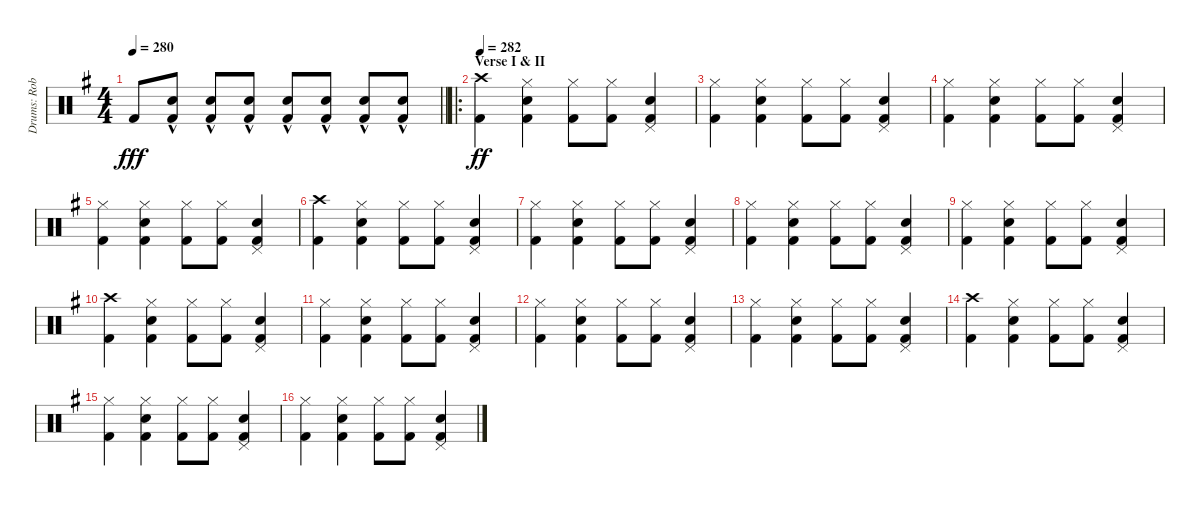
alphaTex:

\track ("Drums: Rob" "Drums: Rob") {instrument percussion}
\staff {score}
\articulation defaults
\ts (4 4)
\tempo 280
\clef neutral
\barLineRight lightlight
\ks g "Kick (hit) 2".8{dy fff}
("Snare (hit) 2" "Kick (hit) 2"{hac}).8 ("Snare (hit) 2" "Kick (hit) 2"{hac}).8 ("Snare (hit) 2" "Kick (hit) 2"{hac}).8 ("Snare (hit) 2"{hac} "Kick (hit) 2"{hac}).8 ("Snare (hit) 2" "Kick (hit) 2"{hac}).8 ("Snare (hit) 2"{hac} "Kick (hit) 2").8 ("Snare (hit) 2" "Kick (hit) 2"{hac}).8 |
\ro
\section ("" "Verse I & II")
\tempo 282
("Crash high (hit)" "Kick (hit) 2").4{dy ff} ("Hi-Hat (closed)" "Snare (hit) 2" "Kick (hit) 2").4 ("Hi-Hat (closed)" "Kick (hit) 2").8 ("Hi-Hat (closed)" "Kick (hit) 2").8 ("Pedal Hi-Hat (hit)" "Snare (hit) 2" "Kick (hit) 2").4 |
("Hi-Hat (closed)" "Kick (hit) 2").4 ("Hi-Hat (closed)" "Snare (hit) 2" "Kick (hit) 2").4 ("Hi-Hat (closed)" "Kick (hit) 2").8 ("Hi-Hat (closed)" "Kick (hit) 2").8 ("Pedal Hi-Hat (hit)" "Snare (hit) 2" "Kick (hit) 2").4 |
("Hi-Hat (closed)" "Kick (hit) 2").4 ("Hi-Hat (closed)" "Snare (hit) 2" "Kick (hit) 2").4 ("Hi-Hat (closed)" "Kick (hit) 2").8 ("Hi-Hat (closed)" "Kick (hit) 2").8 ("Pedal Hi-Hat (hit)" "Snare (hit) 2" "Kick (hit) 2").4 |
("Hi-Hat (closed)" "Kick (hit) 2").4 ("Hi-Hat (closed)" "Snare (hit) 2" "Kick (hit) 2").4 ("Hi-Hat (closed)" "Kick (hit) 2").8 ("Hi-Hat (closed)" "Kick (hit) 2").8 ("Pedal Hi-Hat (hit)" "Snare (hit) 2" "Kick (hit) 2").4 |
("Crash high (hit)" "Kick (hit) 2").4 ("Hi-Hat (closed)" "Snare (hit) 2" "Kick (hit) 2").4 ("Hi-Hat (closed)" "Kick (hit) 2").8 ("Hi-Hat (closed)" "Kick (hit) 2").8 ("Pedal Hi-Hat (hit)" "Snare (hit) 2" "Kick (hit) 2").4 |
("Hi-Hat (closed)" "Kick (hit) 2").4 ("Hi-Hat (closed)" "Snare (hit) 2" "Kick (hit) 2").4 ("Hi-Hat (closed)" "Kick (hit) 2").8 ("Hi-Hat (closed)" "Kick (hit) 2").8 ("Pedal Hi-Hat (hit)" "Snare (hit) 2" "Kick (hit) 2").4 |
("Hi-Hat (closed)" "Kick (hit) 2").4 ("Hi-Hat (closed)" "Snare (hit) 2" "Kick (hit) 2").4 ("Hi-Hat (closed)" "Kick (hit) 2").8 ("Hi-Hat (closed)" "Kick (hit) 2").8 ("Pedal Hi-Hat (hit)" "Snare (hit) 2" "Kick (hit) 2").4 |
("Hi-Hat (closed)" "Kick (hit) 2").4 ("Hi-Hat (closed)" "Snare (hit) 2" "Kick (hit) 2").4 ("Hi-Hat (closed)" "Kick (hit) 2").8 ("Hi-Hat (closed)" "Kick (hit) 2").8 ("Pedal Hi-Hat (hit)" "Snare (hit) 2" "Kick (hit) 2").4 |
("Crash high (hit)" "Kick (hit) 2").4 ("Hi-Hat (closed)" "Snare (hit) 2" "Kick (hit) 2").4 ("Hi-Hat (closed)" "Kick (hit) 2").8 ("Hi-Hat (closed)" "Kick (hit) 2").8 ("Pedal Hi-Hat (hit)" "Snare (hit) 2" "Kick (hit) 2").4 |
("Hi-Hat (closed)" "Kick (hit) 2").4 ("Hi-Hat (closed)" "Snare (hit) 2" "Kick (hit) 2").4 ("Hi-Hat (closed)" "Kick (hit) 2").8 ("Hi-Hat (closed)" "Kick (hit) 2").8 ("Pedal Hi-Hat (hit)" "Snare (hit) 2" "Kick (hit) 2").4 |
("Hi-Hat (closed)" "Kick (hit) 2").4 ("Hi-Hat (closed)" "Snare (hit) 2" "Kick (hit) 2").4 ("Hi-Hat (closed)" "Kick (hit) 2").8 ("Hi-Hat (closed)" "Kick (hit) 2").8 ("Pedal Hi-Hat (hit)" "Snare (hit) 2" "Kick (hit) 2").4 |
("Hi-Hat (closed)" "Kick (hit) 2").4 ("Hi-Hat (closed)" "Snare (hit) 2" "Kick (hit) 2").4 ("Hi-Hat (closed)" "Kick (hit) 2").8 ("Hi-Hat (closed)" "Kick (hit) 2").8 ("Pedal Hi-Hat (hit)" "Snare (hit) 2" "Kick (hit) 2").4 |
("Crash high (hit)" "Kick (hit) 2").4 ("Hi-Hat (closed)" "Snare (hit) 2" "Kick (hit) 2").4 ("Hi-Hat (closed)" "Kick (hit) 2").8 ("Hi-Hat (closed)" "Kick (hit) 2").8 ("Pedal Hi-Hat (hit)" "Snare (hit) 2" "Kick (hit) 2").4 |
("Hi-Hat (closed)" "Kick (hit) 2").4 ("Hi-Hat (closed)" "Snare (hit) 2" "Kick (hit) 2").4 ("Hi-Hat (closed)" "Kick (hit) 2").8 ("Hi-Hat (closed)" "Kick (hit) 2").8 ("Pedal Hi-Hat (hit)" "Snare (hit) 2" "Kick (hit) 2").4 |
("Hi-Hat (closed)" "Kick (hit) 2").4 ("Hi-Hat (closed)" "Snare (hit) 2" "Kick (hit) 2").4 ("Hi-Hat (closed)" "Kick (hit) 2").8 ("Hi-Hat (closed)" "Kick (hit) 2").8 ("Pedal Hi-Hat (hit)" "Snare (hit) 2" "Kick (hit) 2").4
